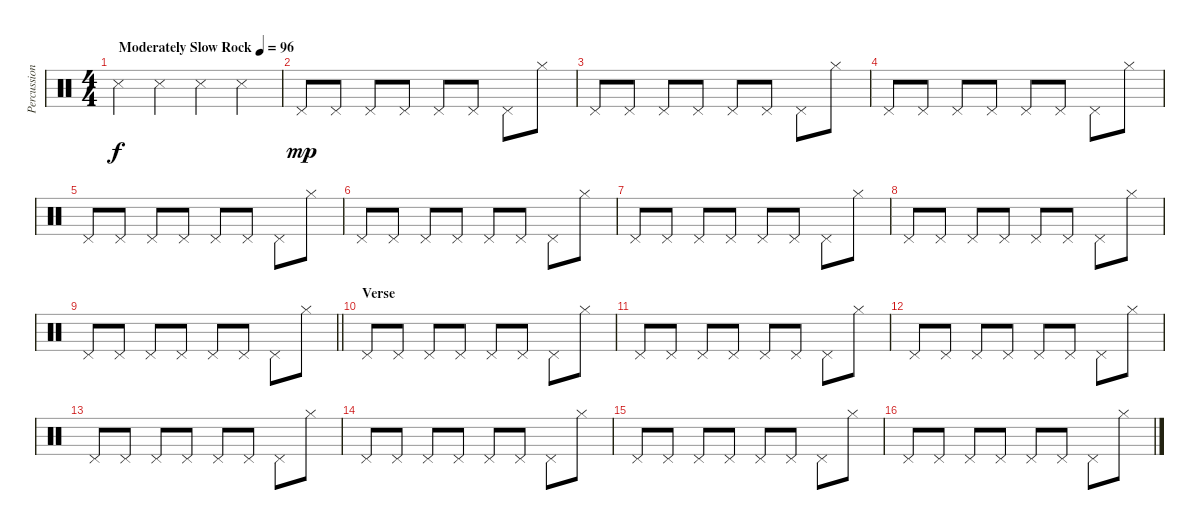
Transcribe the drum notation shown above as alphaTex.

\track ("Percussion" "Percussion") {instrument percussion}
\staff {score}
\articulation defaults
\ts (4 4)
\tempo (96 "Moderately Slow Rock")
\clef neutral
\ks c "Metronome (hit)".4{dy f} "Metronome (hit)".4 "Metronome (hit)".4 "Metronome (hit)".4
|
"Pedal Hi-Hat (hit)".8{dy mp} "Pedal Hi-Hat (hit)".8 "Pedal Hi-Hat (hit)".8 "Pedal Hi-Hat (hit)".8 "Pedal Hi-Hat (hit)".8 "Pedal Hi-Hat (hit)".8 "Pedal Hi-Hat (hit)".8 "Hi-Hat (closed)".8 |
"Pedal Hi-Hat (hit)".8 "Pedal Hi-Hat (hit)".8 "Pedal Hi-Hat (hit)".8 "Pedal Hi-Hat (hit)".8 "Pedal Hi-Hat (hit)".8 "Pedal Hi-Hat (hit)".8 "Pedal Hi-Hat (hit)".8 "Hi-Hat (closed)".8 |
"Pedal Hi-Hat (hit)".8 "Pedal Hi-Hat (hit)".8 "Pedal Hi-Hat (hit)".8 "Pedal Hi-Hat (hit)".8 "Pedal Hi-Hat (hit)".8 "Pedal Hi-Hat (hit)".8 "Pedal Hi-Hat (hit)".8 "Hi-Hat (closed)".8 |
"Pedal Hi-Hat (hit)".8 "Pedal Hi-Hat (hit)".8 "Pedal Hi-Hat (hit)".8 "Pedal Hi-Hat (hit)".8 "Pedal Hi-Hat (hit)".8 "Pedal Hi-Hat (hit)".8 "Pedal Hi-Hat (hit)".8 "Hi-Hat (closed)".8 |
"Pedal Hi-Hat (hit)".8 "Pedal Hi-Hat (hit)".8 "Pedal Hi-Hat (hit)".8 "Pedal Hi-Hat (hit)".8 "Pedal Hi-Hat (hit)".8 "Pedal Hi-Hat (hit)".8 "Pedal Hi-Hat (hit)".8 "Hi-Hat (closed)".8 |
"Pedal Hi-Hat (hit)".8 "Pedal Hi-Hat (hit)".8 "Pedal Hi-Hat (hit)".8 "Pedal Hi-Hat (hit)".8 "Pedal Hi-Hat (hit)".8 "Pedal Hi-Hat (hit)".8 "Pedal Hi-Hat (hit)".8 "Hi-Hat (closed)".8 |
"Pedal Hi-Hat (hit)".8 "Pedal Hi-Hat (hit)".8 "Pedal Hi-Hat (hit)".8 "Pedal Hi-Hat (hit)".8 "Pedal Hi-Hat (hit)".8 "Pedal Hi-Hat (hit)".8 "Pedal Hi-Hat (hit)".8 "Hi-Hat (closed)".8 |
\barLineRight lightlight "Pedal Hi-Hat (hit)".8 "Pedal Hi-Hat (hit)".8 "Pedal Hi-Hat (hit)".8 "Pedal Hi-Hat (hit)".8 "Pedal Hi-Hat (hit)".8 "Pedal Hi-Hat (hit)".8 "Pedal Hi-Hat (hit)".8 "Hi-Hat (closed)".8
|
\section ("" "Verse")
"Pedal Hi-Hat (hit)".8 "Pedal Hi-Hat (hit)".8 "Pedal Hi-Hat (hit)".8 "Pedal Hi-Hat (hit)".8 "Pedal Hi-Hat (hit)".8 "Pedal Hi-Hat (hit)".8 "Pedal Hi-Hat (hit)".8 "Hi-Hat (closed)".8 |
"Pedal Hi-Hat (hit)".8 "Pedal Hi-Hat (hit)".8 "Pedal Hi-Hat (hit)".8 "Pedal Hi-Hat (hit)".8 "Pedal Hi-Hat (hit)".8 "Pedal Hi-Hat (hit)".8 "Pedal Hi-Hat (hit)".8 "Hi-Hat (closed)".8 |
"Pedal Hi-Hat (hit)".8 "Pedal Hi-Hat (hit)".8 "Pedal Hi-Hat (hit)".8 "Pedal Hi-Hat (hit)".8 "Pedal Hi-Hat (hit)".8 "Pedal Hi-Hat (hit)".8 "Pedal Hi-Hat (hit)".8 "Hi-Hat (closed)".8 |
"Pedal Hi-Hat (hit)".8 "Pedal Hi-Hat (hit)".8 "Pedal Hi-Hat (hit)".8 "Pedal Hi-Hat (hit)".8 "Pedal Hi-Hat (hit)".8 "Pedal Hi-Hat (hit)".8 "Pedal Hi-Hat (hit)".8 "Hi-Hat (closed)".8 |
"Pedal Hi-Hat (hit)".8 "Pedal Hi-Hat (hit)".8 "Pedal Hi-Hat (hit)".8 "Pedal Hi-Hat (hit)".8 "Pedal Hi-Hat (hit)".8 "Pedal Hi-Hat (hit)".8 "Pedal Hi-Hat (hit)".8 "Hi-Hat (closed)".8 |
"Pedal Hi-Hat (hit)".8 "Pedal Hi-Hat (hit)".8 "Pedal Hi-Hat (hit)".8 "Pedal Hi-Hat (hit)".8 "Pedal Hi-Hat (hit)".8 "Pedal Hi-Hat (hit)".8 "Pedal Hi-Hat (hit)".8 "Hi-Hat (closed)".8 |
"Pedal Hi-Hat (hit)".8 "Pedal Hi-Hat (hit)".8 "Pedal Hi-Hat (hit)".8 "Pedal Hi-Hat (hit)".8 "Pedal Hi-Hat (hit)".8 "Pedal Hi-Hat (hit)".8 "Pedal Hi-Hat (hit)".8 "Hi-Hat (closed)".8
